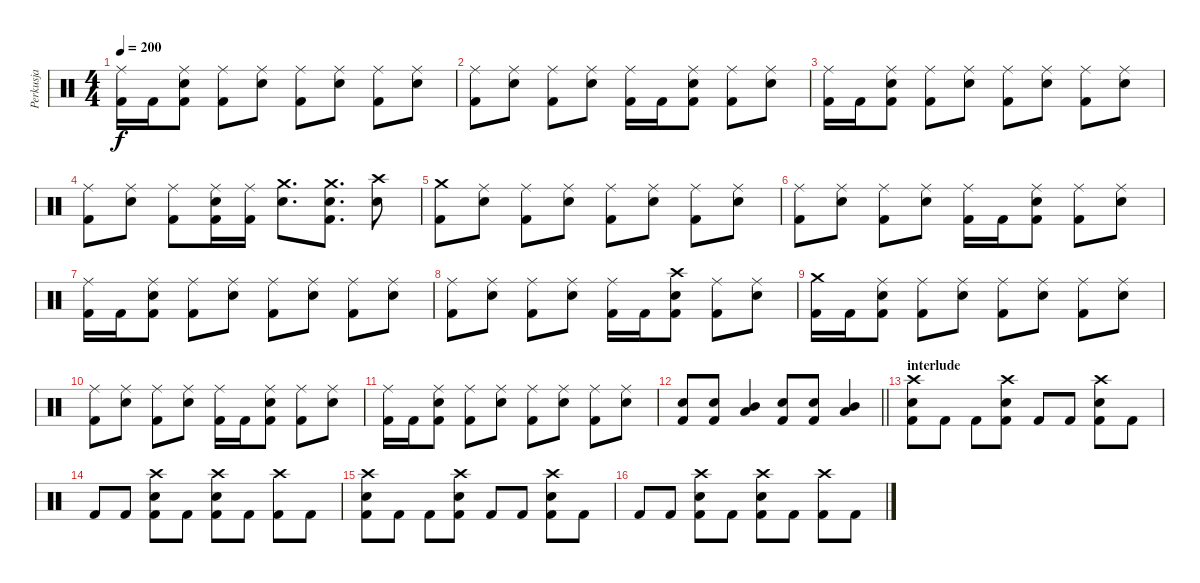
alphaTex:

\track ("Perkusja" "Perkusja") {instrument percussion}
\staff {score}
\articulation defaults
\ts (4 4)
\tempo 200
\clef neutral
\ks c
("Ride (middle)" "Kick (hit) 2").16{dy f} "Kick (hit) 2".16 ("Ride (middle)" "Electric Snare (hit)" "Kick (hit) 2").8 ("Ride (middle)" "Kick (hit) 2").8 ("Ride (middle)" "Electric Snare (hit)").8 ("Ride (middle)" "Kick (hit) 2").8 ("Ride (middle)" "Electric Snare (hit)").8 ("Ride (middle)" "Kick (hit) 2").8 ("Ride (middle)" "Electric Snare (hit)").8 |
("Ride (middle)" "Kick (hit) 2").8 ("Ride (middle)" "Electric Snare (hit)").8 ("Ride (middle)" "Kick (hit) 2").8 ("Ride (middle)" "Electric Snare (hit)").8 ("Ride (middle)" "Kick (hit) 2").16 "Kick (hit) 2".16 ("Ride (middle)" "Electric Snare (hit)" "Kick (hit) 2").8 ("Ride (middle)" "Kick (hit) 2").8 ("Ride (middle)" "Electric Snare (hit)").8 |
("Ride (middle)" "Kick (hit) 2").16 "Kick (hit) 2".16 ("Ride (middle)" "Electric Snare (hit)" "Kick (hit) 2").8 ("Ride (middle)" "Kick (hit) 2").8 ("Ride (middle)" "Electric Snare (hit)").8 ("Ride (middle)" "Kick (hit) 2").8 ("Ride (middle)" "Electric Snare (hit)").8 ("Ride (middle)" "Kick (hit) 2").8 ("Ride (middle)" "Electric Snare (hit)").8 |
("Ride (middle)" "Kick (hit) 2").8 ("Ride (middle)" "Electric Snare (hit)").8 ("Ride (middle)" "Kick (hit) 2").8 ("Ride (middle)" "Electric Snare (hit)" "Kick (hit) 2").16 ("Ride (middle)" "Kick (hit) 2").16 ("Crash medium (hit)" "Electric Snare (hit)").8{d} ("Crash medium (hit)" "Electric Snare (hit)" "Kick (hit) 2").8{d} ("Crash high (hit)" "Electric Snare (hit)").8 |
("Crash medium (hit)" "Kick (hit) 2").8 ("Ride (middle)" "Electric Snare (hit)").8 ("Ride (middle)" "Kick (hit) 2").8 ("Ride (middle)" "Electric Snare (hit)").8 ("Ride (middle)" "Kick (hit) 2").8 ("Ride (middle)" "Electric Snare (hit)").8 ("Ride (middle)" "Kick (hit) 2").8 ("Ride (middle)" "Electric Snare (hit)").8 |
("Ride (middle)" "Kick (hit) 2").8 ("Ride (middle)" "Electric Snare (hit)").8 ("Ride (middle)" "Kick (hit) 2").8 ("Ride (middle)" "Electric Snare (hit)").8 ("Ride (middle)" "Kick (hit) 2").16 "Kick (hit) 2".16 ("Ride (middle)" "Electric Snare (hit)" "Kick (hit) 2").8 ("Ride (middle)" "Kick (hit) 2").8 ("Ride (middle)" "Electric Snare (hit)").8 |
("Ride (middle)" "Kick (hit) 2").16 "Kick (hit) 2".16 ("Ride (middle)" "Electric Snare (hit)" "Kick (hit) 2").8 ("Ride (middle)" "Kick (hit) 2").8 ("Ride (middle)" "Electric Snare (hit)").8 ("Ride (middle)" "Kick (hit) 2").8 ("Ride (middle)" "Electric Snare (hit)").8 ("Ride (middle)" "Kick (hit) 2").8 ("Ride (middle)" "Electric Snare (hit)").8 |
("Ride (middle)" "Kick (hit) 2").8 ("Ride (middle)" "Electric Snare (hit)").8 ("Ride (middle)" "Kick (hit) 2").8 ("Ride (middle)" "Electric Snare (hit)").8 ("Ride (middle)" "Kick (hit) 2").16 "Kick (hit) 2".16 ("Crash high (hit)" "Electric Snare (hit)" "Kick (hit) 2").8 ("Ride (middle)" "Kick (hit) 2").8 ("Ride (middle)" "Electric Snare (hit)").8 |
("Crash medium (hit)" "Kick (hit) 2").16 "Kick (hit) 2".16 ("Ride (middle)" "Electric Snare (hit)" "Kick (hit) 2").8 ("Ride (middle)" "Kick (hit) 2").8 ("Ride (middle)" "Electric Snare (hit)").8 ("Ride (middle)" "Kick (hit) 2").8 ("Ride (middle)" "Electric Snare (hit)").8 ("Ride (middle)" "Kick (hit) 2").8 ("Ride (middle)" "Electric Snare (hit)").8 |
("Ride (middle)" "Kick (hit) 2").8 ("Ride (middle)" "Electric Snare (hit)").8 ("Ride (middle)" "Kick (hit) 2").8 ("Ride (middle)" "Electric Snare (hit)").8 ("Ride (middle)" "Kick (hit) 2").16 "Kick (hit) 2".16 ("Ride (middle)" "Electric Snare (hit)" "Kick (hit) 2").8 ("Ride (middle)" "Kick (hit) 2").8 ("Ride (middle)" "Electric Snare (hit)").8 |
("Ride (middle)" "Kick (hit) 2").16 "Kick (hit) 2".16 ("Ride (middle)" "Electric Snare (hit)" "Kick (hit) 2").8 ("Ride (middle)" "Kick (hit) 2").8 ("Ride (middle)" "Electric Snare (hit)").8 ("Ride (middle)" "Kick (hit) 2").8 ("Ride (middle)" "Electric Snare (hit)").8 ("Ride (middle)" "Kick (hit) 2").8 ("Ride (middle)" "Electric Snare (hit)").8 |
\barLineRight lightlight
("Electric Snare (hit)" "Kick (hit) 2").8 ("Electric Snare (hit)" "Kick (hit) 2").8 ("Mid Tom (hit)" "Low Tom (hit)").4 ("Electric Snare (hit)" "Kick (hit) 2").8 ("Electric Snare (hit)" "Kick (hit) 2").8 ("Mid Tom (hit)" "Low Tom (hit)").4 |
\section ("" "interlude")
("Crash high (hit)" "Electric Snare (hit)" "Kick (hit) 2").8 "Kick (hit) 2".8 "Kick (hit) 2".8 ("Crash high (hit)" "Electric Snare (hit)" "Kick (hit) 2").8 "Kick (hit) 2".8 "Kick (hit) 2".8 ("Crash high (hit)" "Electric Snare (hit)" "Kick (hit) 2").8 "Kick (hit) 2".8 |
"Kick (hit) 2".8 "Kick (hit) 2".8 ("Crash high (hit)" "Electric Snare (hit)" "Kick (hit) 2").8 "Kick (hit) 2".8 ("Crash high (hit)" "Electric Snare (hit)" "Kick (hit) 2").8 "Kick (hit) 2".8 ("Crash high (hit)" "Kick (hit) 2").8 "Kick (hit) 2".8 |
("Crash high (hit)" "Electric Snare (hit)" "Kick (hit) 2").8 "Kick (hit) 2".8 "Kick (hit) 2".8 ("Crash high (hit)" "Electric Snare (hit)" "Kick (hit) 2").8 "Kick (hit) 2".8 "Kick (hit) 2".8 ("Crash high (hit)" "Electric Snare (hit)" "Kick (hit) 2").8 "Kick (hit) 2".8 |
"Kick (hit) 2".8 "Kick (hit) 2".8 ("Crash high (hit)" "Electric Snare (hit)" "Kick (hit) 2").8 "Kick (hit) 2".8 ("Crash high (hit)" "Electric Snare (hit)" "Kick (hit) 2").8 "Kick (hit) 2".8 ("Crash high (hit)" "Kick (hit) 2").8 "Kick (hit) 2".8
